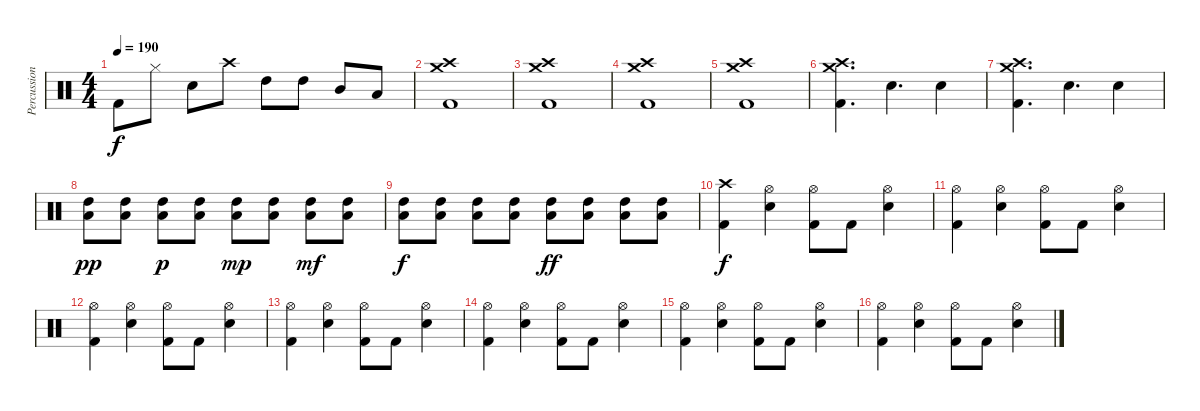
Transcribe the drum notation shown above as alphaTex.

\track ("Percussion" "Percussion") {instrument percussion}
\staff {score}
\articulation defaults
\ts (4 4)
\tempo 190
\clef neutral
\ks c "Kick (hit) 2".8{dy f} "Hi-Hat (closed)".8 "Electric Snare (hit)".8 "Crash high (hit)".8 "High Tom (hit)".8 "High Tom (hit)".8 "Mid Tom (hit)".8 "Low Tom (hit)".8
|
("Crash high (hit)" "Crash medium (hit)" "Kick (hit) 2").1 |
("Crash high (hit)" "Crash medium (hit)" "Kick (hit) 2").1 |
("Crash high (hit)" "Crash medium (hit)" "Kick (hit) 2").1 |
("Crash high (hit)" "Crash medium (hit)" "Kick (hit) 2").1 |
("Crash high (hit)" "Crash medium (hit)" "Kick (hit) 2").4{d} "Electric Snare (hit)".4{d} "Electric Snare (hit)".4 |
("Crash high (hit)" "Crash medium (hit)" "Kick (hit) 2").4{d} "Electric Snare (hit)".4{d} "Electric Snare (hit)".4 |
("High Tom (hit)" "Low Tom (hit)").8{dy pp} ("High Tom (hit)" "Low Tom (hit)").8 ("High Tom (hit)" "Low Tom (hit)").8{dy p} ("High Tom (hit)" "Low Tom (hit)").8 ("High Tom (hit)" "Low Tom (hit)").8{dy mp} ("High Tom (hit)" "Low Tom (hit)").8 ("High Tom (hit)" "Low Tom (hit)").8{dy mf} ("High Tom (hit)" "Low Tom (hit)").8 |
("High Tom (hit)" "Low Tom (hit)").8{dy f} ("High Tom (hit)" "Low Tom (hit)").8 ("High Tom (hit)" "Low Tom (hit)").8 ("High Tom (hit)" "Low Tom (hit)").8 ("High Tom (hit)" "Low Tom (hit)").8{dy ff} ("High Tom (hit)" "Low Tom (hit)").8 ("High Tom (hit)" "Low Tom (hit)").8 ("High Tom (hit)" "Low Tom (hit)").8 |
("Crash high (hit)" "Kick (hit) 2").4{dy f} ("Hi-Hat (open)" "Electric Snare (hit)").4 ("Hi-Hat (open)" "Kick (hit) 2").8 "Kick (hit) 2".8 ("Hi-Hat (open)" "Electric Snare (hit)").4 |
("Hi-Hat (open)" "Kick (hit) 2").4 ("Hi-Hat (open)" "Electric Snare (hit)").4 ("Hi-Hat (open)" "Kick (hit) 2").8 "Kick (hit) 2".8 ("Hi-Hat (open)" "Electric Snare (hit)").4 |
("Hi-Hat (open)" "Kick (hit) 2").4 ("Hi-Hat (open)" "Electric Snare (hit)").4 ("Hi-Hat (open)" "Kick (hit) 2").8 "Kick (hit) 2".8 ("Hi-Hat (open)" "Electric Snare (hit)").4 |
("Hi-Hat (open)" "Kick (hit) 2").4 ("Hi-Hat (open)" "Electric Snare (hit)").4 ("Hi-Hat (open)" "Kick (hit) 2").8 "Kick (hit) 2".8 ("Hi-Hat (open)" "Electric Snare (hit)").4 |
("Hi-Hat (open)" "Kick (hit) 2").4 ("Hi-Hat (open)" "Electric Snare (hit)").4 ("Hi-Hat (open)" "Kick (hit) 2").8 "Kick (hit) 2".8 ("Hi-Hat (open)" "Electric Snare (hit)").4 |
("Hi-Hat (open)" "Kick (hit) 2").4 ("Hi-Hat (open)" "Electric Snare (hit)").4 ("Hi-Hat (open)" "Kick (hit) 2").8 "Kick (hit) 2".8 ("Hi-Hat (open)" "Electric Snare (hit)").4 |
("Hi-Hat (open)" "Kick (hit) 2").4 ("Hi-Hat (open)" "Electric Snare (hit)").4 ("Hi-Hat (open)" "Kick (hit) 2").8 "Kick (hit) 2".8 ("Hi-Hat (open)" "Electric Snare (hit)").4
